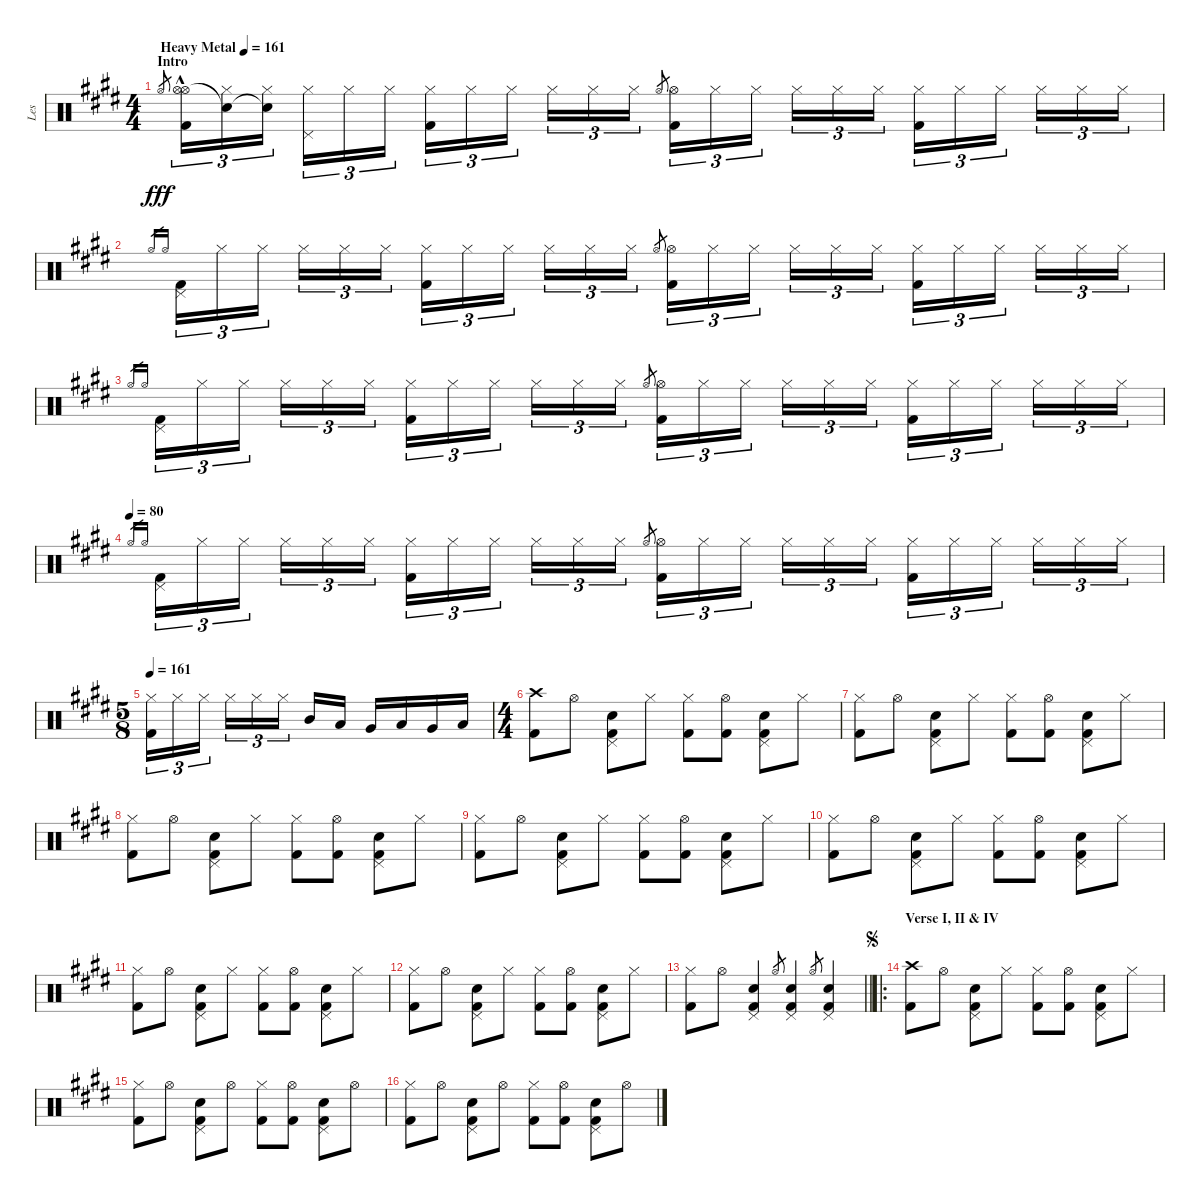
\track ("Les" "Les") {instrument percussion}
\staff {score}
\articulation defaults
\ts (4 4)
\section ("" "Intro")
\tempo (161 "Heavy Metal")
\tempo 82
\tempo (161 "Heavy Metal")
\clef neutral
\ks e "Hi-Hat (open)".8{gr dy fff}
("Hi-Hat (open)"{hac} "Hi-Hat (open)" "Kick (hit) 2"{hac}).16{tu (3 2)} ("Snare (hit)"{t} "Hi-Hat (closed)").16{tu (3 2)} ("Snare (hit)"{t} "Hi-Hat (closed)").16{tu (3 2) beam splitsecondary} ("Pedal Hi-Hat (hit)" "Hi-Hat (closed)").16{tu (3 2)} "Hi-Hat (closed)".16{tu (3 2)} "Hi-Hat (closed)".16{tu (3 2)} ("Hi-Hat (closed)" "Kick (hit) 2").16{tu (3 2)} "Hi-Hat (closed)".16{tu (3 2)} "Hi-Hat (closed)".16{tu (3 2) beam splitsecondary} "Hi-Hat (closed)".16{tu (3 2)} "Hi-Hat (closed)".16{tu (3 2)} "Hi-Hat (closed)".16{tu (3 2)} "Hi-Hat (open)".8{gr} ("Hi-Hat (open)" "Kick (hit) 2").16{tu (3 2)} "Hi-Hat (closed)".16{tu (3 2)} "Hi-Hat (closed)".16{tu (3 2) beam splitsecondary} "Hi-Hat (closed)".16{tu (3 2)} "Hi-Hat (closed)".16{tu (3 2)} "Hi-Hat (closed)".16{tu (3 2)} ("Hi-Hat (closed)" "Kick (hit) 2").16{tu (3 2)} "Hi-Hat (closed)".16{tu (3 2)} "Hi-Hat (closed)".16{tu (3 2) beam splitsecondary} "Hi-Hat (closed)".16{tu (3 2)} "Hi-Hat (closed)".16{tu (3 2)} "Hi-Hat (closed)".16{tu (3 2)} |
"Hi-Hat (open)".16{gr} "Hi-Hat (open)".16{gr} ("Pedal Hi-Hat (hit)" "Kick (hit) 2").16{tu (3 2)} "Hi-Hat (closed)".16{tu (3 2)} "Hi-Hat (closed)".16{tu (3 2) beam splitsecondary} "Hi-Hat (closed)".16{tu (3 2)} "Hi-Hat (closed)".16{tu (3 2)} "Hi-Hat (closed)".16{tu (3 2)} ("Hi-Hat (closed)" "Kick (hit) 2").16{tu (3 2)} "Hi-Hat (closed)".16{tu (3 2)} "Hi-Hat (closed)".16{tu (3 2) beam splitsecondary} "Hi-Hat (closed)".16{tu (3 2)} "Hi-Hat (closed)".16{tu (3 2)} "Hi-Hat (closed)".16{tu (3 2)} "Hi-Hat (open)".8{gr} ("Hi-Hat (open)" "Kick (hit) 2").16{tu (3 2)} "Hi-Hat (closed)".16{tu (3 2)} "Hi-Hat (closed)".16{tu (3 2) beam splitsecondary} "Hi-Hat (closed)".16{tu (3 2)} "Hi-Hat (closed)".16{tu (3 2)} "Hi-Hat (closed)".16{tu (3 2)} ("Hi-Hat (closed)" "Kick (hit) 2").16{tu (3 2)} "Hi-Hat (closed)".16{tu (3 2)} "Hi-Hat (closed)".16{tu (3 2) beam splitsecondary} "Hi-Hat (closed)".16{tu (3 2)} "Hi-Hat (closed)".16{tu (3 2)} "Hi-Hat (closed)".16{tu (3 2)} |
"Hi-Hat (open)".16{gr} "Hi-Hat (open)".16{gr} ("Pedal Hi-Hat (hit)" "Kick (hit) 2").16{tu (3 2)} "Hi-Hat (closed)".16{tu (3 2)} "Hi-Hat (closed)".16{tu (3 2) beam splitsecondary} "Hi-Hat (closed)".16{tu (3 2)} "Hi-Hat (closed)".16{tu (3 2)} "Hi-Hat (closed)".16{tu (3 2)} ("Hi-Hat (closed)" "Kick (hit) 2").16{tu (3 2)} "Hi-Hat (closed)".16{tu (3 2)} "Hi-Hat (closed)".16{tu (3 2) beam splitsecondary} "Hi-Hat (closed)".16{tu (3 2)} "Hi-Hat (closed)".16{tu (3 2)} "Hi-Hat (closed)".16{tu (3 2)} "Hi-Hat (open)".8{gr} ("Hi-Hat (open)" "Kick (hit) 2").16{tu (3 2)} "Hi-Hat (closed)".16{tu (3 2)} "Hi-Hat (closed)".16{tu (3 2) beam splitsecondary} "Hi-Hat (closed)".16{tu (3 2)} "Hi-Hat (closed)".16{tu (3 2)} "Hi-Hat (closed)".16{tu (3 2)} ("Hi-Hat (closed)" "Kick (hit) 2").16{tu (3 2)} "Hi-Hat (closed)".16{tu (3 2)} "Hi-Hat (closed)".16{tu (3 2) beam splitsecondary} "Hi-Hat (closed)".16{tu (3 2)} "Hi-Hat (closed)".16{tu (3 2)} "Hi-Hat (closed)".16{tu (3 2)} |
\tempo (80)
"Hi-Hat (open)".16{gr} "Hi-Hat (open)".16{gr} ("Pedal Hi-Hat (hit)" "Kick (hit) 2").16{tu (3 2)} "Hi-Hat (closed)".16{tu (3 2)} "Hi-Hat (closed)".16{tu (3 2) beam splitsecondary} "Hi-Hat (closed)".16{tu (3 2)} "Hi-Hat (closed)".16{tu (3 2)} "Hi-Hat (closed)".16{tu (3 2)} ("Hi-Hat (closed)" "Kick (hit) 2").16{tu (3 2)} "Hi-Hat (closed)".16{tu (3 2)} "Hi-Hat (closed)".16{tu (3 2) beam splitsecondary} "Hi-Hat (closed)".16{tu (3 2)} "Hi-Hat (closed)".16{tu (3 2)} "Hi-Hat (closed)".16{tu (3 2)} "Hi-Hat (open)".8{gr} ("Hi-Hat (open)" "Kick (hit) 2").16{tu (3 2)} "Hi-Hat (closed)".16{tu (3 2)} "Hi-Hat (closed)".16{tu (3 2) beam splitsecondary} "Hi-Hat (closed)".16{tu (3 2)} "Hi-Hat (closed)".16{tu (3 2)} "Hi-Hat (closed)".16{tu (3 2)} ("Hi-Hat (closed)" "Kick (hit) 2").16{tu (3 2)} "Hi-Hat (closed)".16{tu (3 2)} "Hi-Hat (closed)".16{tu (3 2) beam splitsecondary} "Hi-Hat (closed)".16{tu (3 2)} "Hi-Hat (closed)".16{tu (3 2)} "Hi-Hat (closed)".16{tu (3 2)} |
\ts (5 8)
\tempo 161
("Hi-Hat (closed)" "Kick (hit) 2").16{tu (3 2)} "Hi-Hat (closed)".16{tu (3 2)} "Hi-Hat (closed)".16{tu (3 2)} "Hi-Hat (closed)".16{tu (3 2)} "Hi-Hat (closed)".16{tu (3 2)} "Hi-Hat (closed)".16{tu (3 2)} "Mid Tom (hit)".16 "Low Tom (hit)".16 "Very Low Tom (hit)".16 "Low Tom (hit)".16 "Very Low Tom (hit)".16 "Low Floor Tom (hit)".16 |
\ts (4 4)
("Crash high (hit)" "Kick (hit) 2").8 "Hi-Hat (open)".8 ("Pedal Hi-Hat (hit)" "Snare (hit) 2" "Kick (hit) 2").8 "Hi-Hat (closed)".8 ("Hi-Hat (closed)" "Kick (hit) 2").8 ("Hi-Hat (open)" "Kick (hit) 2").8 ("Pedal Hi-Hat (hit)" "Snare (hit) 2" "Kick (hit) 2").8 "Hi-Hat (closed)".8 |
("Hi-Hat (closed)" "Kick (hit) 2").8 "Hi-Hat (open)".8 ("Pedal Hi-Hat (hit)" "Snare (hit) 2" "Kick (hit) 2").8 "Hi-Hat (closed)".8 ("Hi-Hat (closed)" "Kick (hit) 2").8 ("Hi-Hat (open)" "Kick (hit) 2").8 ("Pedal Hi-Hat (hit)" "Snare (hit) 2" "Kick (hit) 2").8 "Hi-Hat (closed)".8 |
("Hi-Hat (closed)" "Kick (hit) 2").8 "Hi-Hat (open)".8 ("Pedal Hi-Hat (hit)" "Snare (hit) 2" "Kick (hit) 2").8 "Hi-Hat (closed)".8 ("Hi-Hat (closed)" "Kick (hit) 2").8 ("Hi-Hat (open)" "Kick (hit) 2").8 ("Pedal Hi-Hat (hit)" "Snare (hit) 2" "Kick (hit) 2").8 "Hi-Hat (closed)".8 |
("Hi-Hat (closed)" "Kick (hit) 2").8 "Hi-Hat (open)".8 ("Pedal Hi-Hat (hit)" "Snare (hit) 2" "Kick (hit) 2").8 "Hi-Hat (closed)".8 ("Hi-Hat (closed)" "Kick (hit) 2").8 ("Hi-Hat (open)" "Kick (hit) 2").8 ("Pedal Hi-Hat (hit)" "Snare (hit) 2" "Kick (hit) 2").8 "Hi-Hat (closed)".8 |
("Hi-Hat (closed)" "Kick (hit) 2").8 "Hi-Hat (open)".8 ("Pedal Hi-Hat (hit)" "Snare (hit) 2" "Kick (hit) 2").8 "Hi-Hat (closed)".8 ("Hi-Hat (closed)" "Kick (hit) 2").8 ("Hi-Hat (open)" "Kick (hit) 2").8 ("Pedal Hi-Hat (hit)" "Snare (hit) 2" "Kick (hit) 2").8 "Hi-Hat (closed)".8 |
("Hi-Hat (closed)" "Kick (hit) 2").8 "Hi-Hat (open)".8 ("Pedal Hi-Hat (hit)" "Snare (hit) 2" "Kick (hit) 2").8 "Hi-Hat (closed)".8 ("Hi-Hat (closed)" "Kick (hit) 2").8 ("Hi-Hat (open)" "Kick (hit) 2").8 ("Pedal Hi-Hat (hit)" "Snare (hit) 2" "Kick (hit) 2").8 "Hi-Hat (closed)".8 |
("Hi-Hat (closed)" "Kick (hit) 2").8 "Hi-Hat (open)".8 ("Pedal Hi-Hat (hit)" "Snare (hit) 2" "Kick (hit) 2").8 "Hi-Hat (closed)".8 ("Hi-Hat (closed)" "Kick (hit) 2").8 ("Hi-Hat (open)" "Kick (hit) 2").8 ("Pedal Hi-Hat (hit)" "Snare (hit) 2" "Kick (hit) 2").8 "Hi-Hat (closed)".8 |
\barLineRight lightlight
("Hi-Hat (closed)" "Kick (hit) 2").8 "Hi-Hat (open)".8 ("Pedal Hi-Hat (hit)" "Snare (hit) 2" "Kick (hit) 2").4 "Hi-Hat (open)".8{gr} ("Pedal Hi-Hat (hit)" "Snare (hit) 2" "Kick (hit) 2").4 "Hi-Hat (open)".8{gr} ("Pedal Hi-Hat (hit)" "Snare (hit) 2" "Kick (hit) 2").4 |
\ro
\section ("" "Verse I, II & IV")
\jump segno
("Crash high (hit)" "Kick (hit) 2").8 "Hi-Hat (open)".8 ("Pedal Hi-Hat (hit)" "Snare (hit) 2" "Kick (hit) 2").8 "Hi-Hat (closed)".8 ("Hi-Hat (closed)" "Kick (hit) 2").8 ("Hi-Hat (open)" "Kick (hit) 2").8 ("Pedal Hi-Hat (hit)" "Snare (hit) 2" "Kick (hit) 2").8 "Hi-Hat (closed)".8 |
("Hi-Hat (closed)" "Kick (hit) 2").8 "Hi-Hat (open)".8 ("Pedal Hi-Hat (hit)" "Snare (hit) 2" "Kick (hit) 2").8 "Hi-Hat (open)".8 ("Hi-Hat (closed)" "Kick (hit) 2").8 ("Hi-Hat (open)" "Kick (hit) 2").8 ("Pedal Hi-Hat (hit)" "Snare (hit) 2" "Kick (hit) 2").8 "Hi-Hat (open)".8 |
("Hi-Hat (closed)" "Kick (hit) 2").8 "Hi-Hat (open)".8 ("Pedal Hi-Hat (hit)" "Snare (hit) 2" "Kick (hit) 2").8 "Hi-Hat (open)".8 ("Hi-Hat (closed)" "Kick (hit) 2").8 ("Hi-Hat (open)" "Kick (hit) 2").8 ("Pedal Hi-Hat (hit)" "Snare (hit) 2" "Kick (hit) 2").8 "Hi-Hat (open)".8
